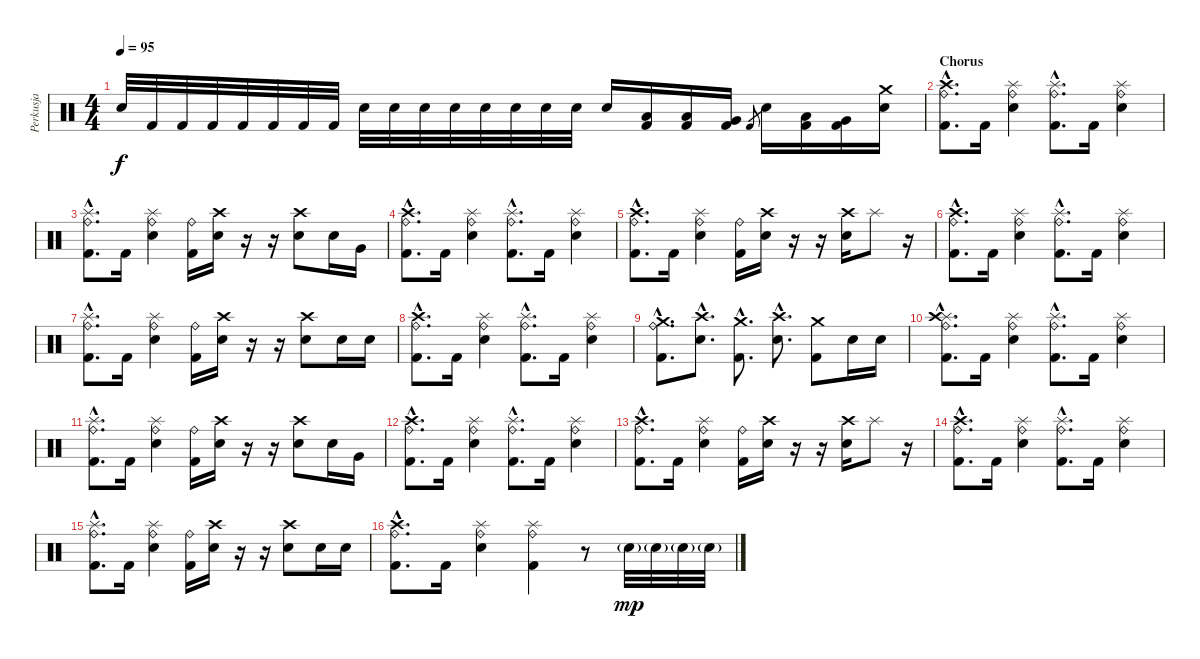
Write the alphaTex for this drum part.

\track ("Perkusja" "Perkusja") {instrument percussion}
\staff {score}
\articulation defaults
\ts (4 4)
\tempo 95
\clef neutral
\ks c "Electric Snare (hit)".32{dy f} "Kick (hit) 2".32 "Kick (hit) 2".32 "Kick (hit) 2".32 "Kick (hit) 2".32 "Kick (hit) 2".32 "Kick (hit) 2".32 "Kick (hit) 2".32 "Electric Snare (hit)".32 "Electric Snare (hit)".32 "Electric Snare (hit)".32 "Electric Snare (hit)".32 "Electric Snare (hit)".32 "Electric Snare (hit)".32 "Electric Snare (hit)".32 "Electric Snare (hit)".32 "Electric Snare (hit)".16
("Low Tom (hit)" "Kick (hit) 2").16 ("Low Tom (hit)" "Kick (hit) 2").16 ("Very Low Tom (hit)" "Kick (hit) 2").16 "Kick (hit) 2".8{gr} "Electric Snare (hit)".16 ("Low Tom (hit)" "Kick (hit) 2").16 ("Very Low Tom (hit)" "Kick (hit) 2").16 ("Electric Snare (hit)" "Crash medium (hit)").16 |
\section ("" "Chorus")
("Kick (hit) 2"{hac} "Crash high (hit)"{hac} "Ride (bell)"{hac}).8{d} "Kick (hit) 2".16 ("Electric Snare (hit)" "Splash (hit)" "Ride (bell)").4 ("Kick (hit) 2"{hac} "Splash (hit)"{hac} "Ride (bell)"{hac}).8{d} "Kick (hit) 2".16 ("Electric Snare (hit)" "Splash (hit)" "Ride (bell)").4 |
("Kick (hit) 2"{hac} "Splash (hit)"{hac} "Ride (bell)"{hac}).8{d} "Kick (hit) 2".16 ("Electric Snare (hit)" "Splash (hit)" "Ride (bell)").4 ("Kick (hit) 2" "Ride (bell)").16 ("Electric Snare (hit)" "Crash high (hit)").16 r.16 r.16 ("Electric Snare (hit)" "Crash high (hit)").8 "Electric Snare (hit)".16 "Very Low Tom (hit)".16 |
("Kick (hit) 2"{hac} "Crash high (hit)"{hac} "Ride (bell)"{hac}).8{d} "Kick (hit) 2".16 ("Electric Snare (hit)" "Splash (hit)" "Ride (bell)").4 ("Kick (hit) 2"{hac} "Splash (hit)"{hac} "Ride (bell)"{hac}).8{d} "Kick (hit) 2".16 ("Electric Snare (hit)" "Splash (hit)" "Ride (bell)").4 |
("Kick (hit) 2"{hac} "Crash high (hit)"{hac} "Ride (bell)"{hac}).8{d} "Kick (hit) 2".16 ("Electric Snare (hit)" "Splash (hit)" "Ride (bell)").4 ("Kick (hit) 2" "Ride (bell)").16 ("Electric Snare (hit)" "Crash high (hit)").16 r.16 r.16 ("Electric Snare (hit)" "Crash high (hit)").16 "Splash (hit)".8 r.16 |
("Kick (hit) 2"{hac} "Crash high (hit)"{hac} "Ride (bell)"{hac}).8{d} "Kick (hit) 2".16 ("Electric Snare (hit)" "Splash (hit)" "Ride (bell)").4 ("Kick (hit) 2"{hac} "Splash (hit)"{hac} "Ride (bell)"{hac}).8{d} "Kick (hit) 2".16 ("Electric Snare (hit)" "Splash (hit)" "Ride (bell)").4 |
("Kick (hit) 2"{hac} "Splash (hit)"{hac} "Ride (bell)"{hac}).8{d} "Kick (hit) 2".16 ("Electric Snare (hit)" "Splash (hit)" "Ride (bell)").4 ("Kick (hit) 2" "Ride (bell)").16 ("Electric Snare (hit)" "Crash high (hit)").16 r.16 r.16 ("Electric Snare (hit)" "Crash high (hit)").8 "Electric Snare (hit)".16 "Electric Snare (hit)".16 |
("Kick (hit) 2"{hac} "Crash high (hit)"{hac} "Ride (bell)"{hac}).8{d} "Kick (hit) 2".16 ("Electric Snare (hit)" "Splash (hit)" "Ride (bell)").4 ("Kick (hit) 2"{hac} "Splash (hit)"{hac} "Ride (bell)"{hac}).8{d} "Kick (hit) 2".16 ("Electric Snare (hit)" "Splash (hit)" "Ride (bell)").4 |
("Ride (bell)"{hac} "Kick (hit) 2"{hac} "Crash medium (hit)"{hac}).8{d} ("Electric Snare (hit)"{hac} "Crash high (hit)"{hac}).8{d} ("Kick (hit) 2"{hac} "Crash medium (hit)"{hac}).8{d} ("Electric Snare (hit)"{hac} "Crash high (hit)"{hac}).8{d} ("Kick (hit) 2" "Crash medium (hit)").8 "Electric Snare (hit)".16 "Electric Snare (hit)".16 |
("Kick (hit) 2"{hac} "Splash (hit)"{hac} "Ride (bell)"{hac} "Crash high (hit)"{hac}).8{d} "Kick (hit) 2".16 ("Electric Snare (hit)" "Splash (hit)" "Ride (bell)").4 ("Kick (hit) 2"{hac} "Splash (hit)"{hac} "Ride (bell)"{hac}).8{d} "Kick (hit) 2".16 ("Electric Snare (hit)" "Splash (hit)" "Ride (bell)").4 |
("Kick (hit) 2"{hac} "Splash (hit)"{hac} "Ride (bell)"{hac}).8{d} "Kick (hit) 2".16 ("Electric Snare (hit)" "Splash (hit)" "Ride (bell)").4 ("Kick (hit) 2" "Ride (bell)").16 ("Electric Snare (hit)" "Crash high (hit)").16 r.16 r.16 ("Electric Snare (hit)" "Crash high (hit)").8 "Electric Snare (hit)".16 "Very Low Tom (hit)".16 |
("Kick (hit) 2"{hac} "Crash high (hit)"{hac} "Ride (bell)"{hac}).8{d} "Kick (hit) 2".16 ("Electric Snare (hit)" "Splash (hit)" "Ride (bell)").4 ("Kick (hit) 2"{hac} "Splash (hit)"{hac} "Ride (bell)"{hac}).8{d} "Kick (hit) 2".16 ("Electric Snare (hit)" "Splash (hit)" "Ride (bell)").4 |
("Kick (hit) 2"{hac} "Crash high (hit)"{hac} "Ride (bell)"{hac}).8{d} "Kick (hit) 2".16 ("Electric Snare (hit)" "Splash (hit)" "Ride (bell)").4 ("Kick (hit) 2" "Ride (bell)").16 ("Electric Snare (hit)" "Crash high (hit)").16 r.16 r.16 ("Electric Snare (hit)" "Crash high (hit)").16 "Splash (hit)".8 r.16 |
("Kick (hit) 2"{hac} "Crash high (hit)"{hac} "Ride (bell)"{hac}).8{d} "Kick (hit) 2".16 ("Electric Snare (hit)" "Splash (hit)" "Ride (bell)").4 ("Kick (hit) 2"{hac} "Splash (hit)"{hac} "Ride (bell)"{hac}).8{d} "Kick (hit) 2".16 ("Electric Snare (hit)" "Splash (hit)" "Ride (bell)").4 |
("Kick (hit) 2"{hac} "Splash (hit)"{hac} "Ride (bell)"{hac}).8{d} "Kick (hit) 2".16 ("Electric Snare (hit)" "Splash (hit)" "Ride (bell)").4 ("Kick (hit) 2" "Ride (bell)").16 ("Electric Snare (hit)" "Crash high (hit)").16 r.16 r.16 ("Electric Snare (hit)" "Crash high (hit)").8 "Electric Snare (hit)".16 "Electric Snare (hit)".16 |
("Kick (hit) 2"{hac} "Crash high (hit)"{hac} "Ride (bell)"{hac}).8{d} "Kick (hit) 2".16 ("Electric Snare (hit)" "Splash (hit)" "Ride (bell)").4 ("Kick (hit) 2" "Splash (hit)" "Ride (bell)").4 r.8 "Electric Snare (hit)"{g}.32{dy mp} "Electric Snare (hit)"{g}.32 "Electric Snare (hit)"{g}.32 "Electric Snare (hit)"{g}.32
